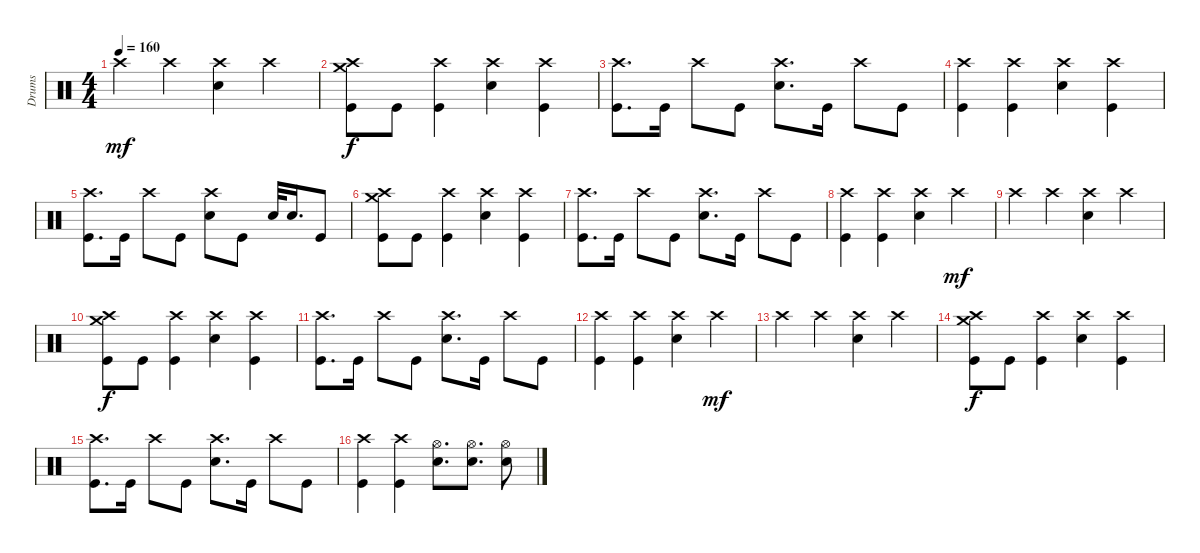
\track ("Drums" "Drums") {instrument percussion}
\staff {score}
\articulation defaults
\ts (4 4)
\tempo 160
\clef neutral
\ks c "Crash high (hit)".4{dy mf} "Crash high (hit)".4
("Electric Snare (hit)" "Crash high (hit)").4 "Crash high (hit)".4 |
("Kick (hit)" "Crash high (hit)" "Crash medium (hit)").8{dy f} "Kick (hit)".8 ("Kick (hit)" "Crash high (hit)").4 ("Electric Snare (hit)" "Crash high (hit)").4 ("Kick (hit)" "Crash high (hit)").4 |
("Kick (hit)" "Crash high (hit)").8{d} "Kick (hit)".16 "Crash high (hit)".8 "Kick (hit)".8 ("Electric Snare (hit)" "Crash high (hit)").8{d} "Kick (hit)".16 "Crash high (hit)".8 "Kick (hit)".8 |
("Kick (hit)" "Crash high (hit)").4 ("Kick (hit)" "Crash high (hit)").4 ("Electric Snare (hit)" "Crash high (hit)").4 ("Kick (hit)" "Crash high (hit)").4 |
("Kick (hit)" "Crash high (hit)").8{d} "Kick (hit)".16 "Crash high (hit)".8 "Kick (hit)".8 ("Electric Snare (hit)" "Crash high (hit)").8 "Kick (hit)".8 "Electric Snare (hit)".32 "Electric Snare (hit)".16{d} "Kick (hit)".8 |
("Kick (hit)" "Crash high (hit)" "Crash medium (hit)").8 "Kick (hit)".8 ("Kick (hit)" "Crash high (hit)").4 ("Electric Snare (hit)" "Crash high (hit)").4 ("Kick (hit)" "Crash high (hit)").4 |
("Kick (hit)" "Crash high (hit)").8{d} "Kick (hit)".16 "Crash high (hit)".8 "Kick (hit)".8 ("Electric Snare (hit)" "Crash high (hit)").8{d} "Kick (hit)".16 "Crash high (hit)".8 "Kick (hit)".8 |
("Kick (hit)" "Crash high (hit)").4 ("Kick (hit)" "Crash high (hit)").4 ("Electric Snare (hit)" "Crash high (hit)").4 "Crash high (hit)".4{dy mf} |
"Crash high (hit)".4 "Crash high (hit)".4 ("Electric Snare (hit)" "Crash high (hit)").4 "Crash high (hit)".4 |
("Kick (hit)" "Crash high (hit)" "Crash medium (hit)").8{dy f} "Kick (hit)".8 ("Kick (hit)" "Crash high (hit)").4 ("Electric Snare (hit)" "Crash high (hit)").4 ("Kick (hit)" "Crash high (hit)").4 |
("Kick (hit)" "Crash high (hit)").8{d} "Kick (hit)".16 "Crash high (hit)".8 "Kick (hit)".8 ("Electric Snare (hit)" "Crash high (hit)").8{d} "Kick (hit)".16 "Crash high (hit)".8 "Kick (hit)".8 |
("Kick (hit)" "Crash high (hit)").4 ("Kick (hit)" "Crash high (hit)").4 ("Electric Snare (hit)" "Crash high (hit)").4 "Crash high (hit)".4{dy mf} |
"Crash high (hit)".4 "Crash high (hit)".4 ("Electric Snare (hit)" "Crash high (hit)").4 "Crash high (hit)".4 |
("Kick (hit)" "Crash high (hit)" "Crash medium (hit)").8{dy f} "Kick (hit)".8 ("Kick (hit)" "Crash high (hit)").4 ("Electric Snare (hit)" "Crash high (hit)").4 ("Kick (hit)" "Crash high (hit)").4 |
("Kick (hit)" "Crash high (hit)").8{d} "Kick (hit)".16 "Crash high (hit)".8 "Kick (hit)".8 ("Electric Snare (hit)" "Crash high (hit)").8{d} "Kick (hit)".16 "Crash high (hit)".8 "Kick (hit)".8 |
("Kick (hit)" "Crash high (hit)").4 ("Kick (hit)" "Crash high (hit)").4 ("Electric Snare (hit)" "Hi-Hat (open)").8{d} ("Electric Snare (hit)" "Hi-Hat (open)").8{d} ("Electric Snare (hit)" "Hi-Hat (open)").8
